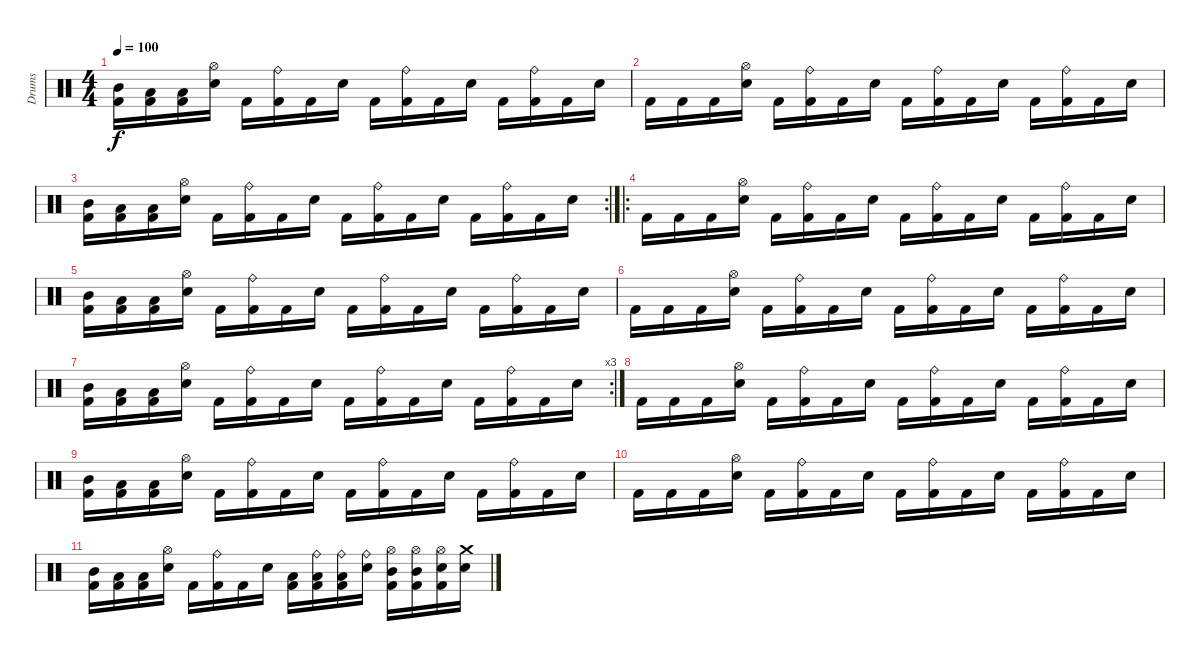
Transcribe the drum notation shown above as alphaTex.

\track ("Drums" "Drums") {instrument percussion}
\staff {score}
\articulation defaults
\ts (4 4)
\tempo 100
\clef neutral
\ks c
("Mid Tom (hit)" "Kick (hit) 2").16{dy f} ("Low Tom (hit)" "Kick (hit) 2").16 ("Low Floor Tom (hit)" "Kick (hit) 2").16 ("Hi-Hat (open)" "Electric Snare (hit)").16 "Kick (hit) 2".16 ("Ride (bell)" "Kick (hit) 2").16 "Kick (hit) 2".16 "Electric Snare (hit)".16 "Kick (hit) 2".16 ("Ride (bell)" "Kick (hit) 2").16 "Kick (hit) 2".16 "Electric Snare (hit)".16 "Kick (hit) 2".16 ("Ride (bell)" "Kick (hit) 2").16 "Kick (hit) 2".16 "Electric Snare (hit)".16 |
"Kick (hit) 2".16 "Kick (hit) 2".16 "Kick (hit) 2".16 ("Hi-Hat (open)" "Electric Snare (hit)").16 "Kick (hit) 2".16 ("Ride (bell)" "Kick (hit) 2").16 "Kick (hit) 2".16 "Electric Snare (hit)".16 "Kick (hit) 2".16 ("Ride (bell)" "Kick (hit) 2").16 "Kick (hit) 2".16 "Electric Snare (hit)".16 "Kick (hit) 2".16 ("Ride (bell)" "Kick (hit) 2").16 "Kick (hit) 2".16 "Electric Snare (hit)".16 |
\rc 2
("Mid Tom (hit)" "Kick (hit) 2").16 ("Low Tom (hit)" "Kick (hit) 2").16 ("Low Floor Tom (hit)" "Kick (hit) 2").16 ("Hi-Hat (open)" "Electric Snare (hit)").16 "Kick (hit) 2".16 ("Ride (bell)" "Kick (hit) 2").16 "Kick (hit) 2".16 "Electric Snare (hit)".16 "Kick (hit) 2".16 ("Ride (bell)" "Kick (hit) 2").16 "Kick (hit) 2".16 "Electric Snare (hit)".16 "Kick (hit) 2".16 ("Ride (bell)" "Kick (hit) 2").16 "Kick (hit) 2".16 "Electric Snare (hit)".16 |
\ro "Kick (hit) 2".16 "Kick (hit) 2".16 "Kick (hit) 2".16
("Hi-Hat (open)" "Electric Snare (hit)").16 "Kick (hit) 2".16 ("Ride (bell)" "Kick (hit) 2").16 "Kick (hit) 2".16 "Electric Snare (hit)".16 "Kick (hit) 2".16 ("Ride (bell)" "Kick (hit) 2").16 "Kick (hit) 2".16 "Electric Snare (hit)".16 "Kick (hit) 2".16 ("Ride (bell)" "Kick (hit) 2").16 "Kick (hit) 2".16 "Electric Snare (hit)".16 |
("Mid Tom (hit)" "Kick (hit) 2").16 ("Low Tom (hit)" "Kick (hit) 2").16 ("Low Floor Tom (hit)" "Kick (hit) 2").16 ("Hi-Hat (open)" "Electric Snare (hit)").16 "Kick (hit) 2".16 ("Ride (bell)" "Kick (hit) 2").16 "Kick (hit) 2".16 "Electric Snare (hit)".16 "Kick (hit) 2".16 ("Ride (bell)" "Kick (hit) 2").16 "Kick (hit) 2".16 "Electric Snare (hit)".16 "Kick (hit) 2".16 ("Ride (bell)" "Kick (hit) 2").16 "Kick (hit) 2".16 "Electric Snare (hit)".16 |
"Kick (hit) 2".16 "Kick (hit) 2".16 "Kick (hit) 2".16 ("Hi-Hat (open)" "Electric Snare (hit)").16 "Kick (hit) 2".16 ("Ride (bell)" "Kick (hit) 2").16 "Kick (hit) 2".16 "Electric Snare (hit)".16 "Kick (hit) 2".16 ("Ride (bell)" "Kick (hit) 2").16 "Kick (hit) 2".16 "Electric Snare (hit)".16 "Kick (hit) 2".16 ("Ride (bell)" "Kick (hit) 2").16 "Kick (hit) 2".16 "Electric Snare (hit)".16 |
\rc 3
("Mid Tom (hit)" "Kick (hit) 2").16 ("Low Tom (hit)" "Kick (hit) 2").16 ("Low Floor Tom (hit)" "Kick (hit) 2").16 ("Hi-Hat (open)" "Electric Snare (hit)").16 "Kick (hit) 2".16 ("Ride (bell)" "Kick (hit) 2").16 "Kick (hit) 2".16 "Electric Snare (hit)".16 "Kick (hit) 2".16 ("Ride (bell)" "Kick (hit) 2").16 "Kick (hit) 2".16 "Electric Snare (hit)".16 "Kick (hit) 2".16 ("Ride (bell)" "Kick (hit) 2").16 "Kick (hit) 2".16 "Electric Snare (hit)".16 |
"Kick (hit) 2".16 "Kick (hit) 2".16 "Kick (hit) 2".16 ("Hi-Hat (open)" "Electric Snare (hit)").16 "Kick (hit) 2".16 ("Ride (bell)" "Kick (hit) 2").16 "Kick (hit) 2".16 "Electric Snare (hit)".16 "Kick (hit) 2".16 ("Ride (bell)" "Kick (hit) 2").16 "Kick (hit) 2".16 "Electric Snare (hit)".16 "Kick (hit) 2".16 ("Ride (bell)" "Kick (hit) 2").16 "Kick (hit) 2".16 "Electric Snare (hit)".16 |
("Mid Tom (hit)" "Kick (hit) 2").16 ("Low Tom (hit)" "Kick (hit) 2").16 ("Low Floor Tom (hit)" "Kick (hit) 2").16 ("Hi-Hat (open)" "Electric Snare (hit)").16 "Kick (hit) 2".16 ("Ride (bell)" "Kick (hit) 2").16 "Kick (hit) 2".16 "Electric Snare (hit)".16 "Kick (hit) 2".16 ("Ride (bell)" "Kick (hit) 2").16 "Kick (hit) 2".16 "Electric Snare (hit)".16 "Kick (hit) 2".16 ("Ride (bell)" "Kick (hit) 2").16 "Kick (hit) 2".16 "Electric Snare (hit)".16 |
"Kick (hit) 2".16 "Kick (hit) 2".16 "Kick (hit) 2".16 ("Hi-Hat (open)" "Electric Snare (hit)").16 "Kick (hit) 2".16 ("Ride (bell)" "Kick (hit) 2").16 "Kick (hit) 2".16 "Electric Snare (hit)".16 "Kick (hit) 2".16 ("Ride (bell)" "Kick (hit) 2").16 "Kick (hit) 2".16 "Electric Snare (hit)".16 "Kick (hit) 2".16 ("Ride (bell)" "Kick (hit) 2").16 "Kick (hit) 2".16 "Electric Snare (hit)".16 |
("Mid Tom (hit)" "Kick (hit) 2").16 ("Low Tom (hit)" "Kick (hit) 2").16 ("Low Floor Tom (hit)" "Kick (hit) 2").16 ("Hi-Hat (open)" "Electric Snare (hit)").16 "Kick (hit) 2".16 ("Ride (bell)" "Kick (hit) 2").16 "Kick (hit) 2".16 "Electric Snare (hit)".16 ("Low Tom (hit)" "Kick (hit) 2").16 ("Ride (bell)" "Low Tom (hit)" "Kick (hit) 2").16 ("Ride (bell)" "Low Tom (hit)" "Kick (hit) 2").16 ("Ride (bell)" "Electric Snare (hit)").16 ("Hi-Hat (open)" "Mid Tom (hit)" "Kick (hit) 2").16 ("Hi-Hat (open)" "Mid Tom (hit)" "Kick (hit) 2").16 ("Hi-Hat (open)" "Electric Snare (hit)" "Kick (hit) 2").16 ("Crash medium (hit)" "Electric Snare (hit)").16
